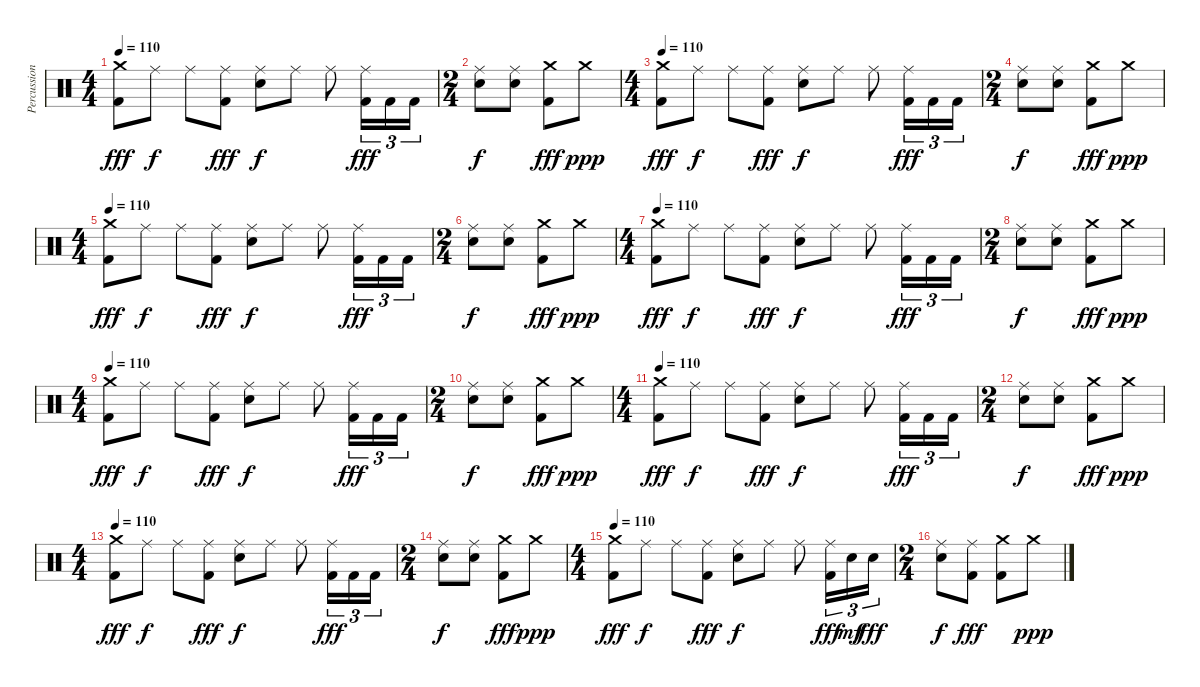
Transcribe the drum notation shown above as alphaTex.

\track ("Percussion" "Percussion") {instrument percussion}
\staff {score}
\articulation defaults
\ts (4 4)
\tempo 110
\clef neutral
\ks c
("Crash medium (hit)" "Kick (hit) 2").8{dy fff} "Ride (middle)".8{dy f} "Ride (middle)".8 ("Ride (middle)" "Kick (hit) 2").8{dy fff} ("Ride (middle)" "Electric Snare (hit)").8{dy f} "Ride (middle)".8 "Ride (middle)".8 ("Ride (middle)" "Kick (hit) 2").16{tu (3 2) dy fff} "Kick (hit) 2".16{tu (3 2)} "Kick (hit) 2".16{tu (3 2)} |
\ts (2 4)
("Ride (middle)" "Electric Snare (hit)").8{dy f} ("Ride (middle)" "Electric Snare (hit)").8 ("Crash medium (hit)" "Kick (hit) 2").8{dy fff} "Crash medium (hit)".8{dy ppp} |
\ts (4 4)
\tempo 110
("Crash medium (hit)" "Kick (hit) 2").8{dy fff} "Ride (middle)".8{dy f} "Ride (middle)".8 ("Ride (middle)" "Kick (hit) 2").8{dy fff} ("Ride (middle)" "Electric Snare (hit)").8{dy f} "Ride (middle)".8 "Ride (middle)".8 ("Ride (middle)" "Kick (hit) 2").16{tu (3 2) dy fff} "Kick (hit) 2".16{tu (3 2)} "Kick (hit) 2".16{tu (3 2)} |
\ts (2 4)
("Ride (middle)" "Electric Snare (hit)").8{dy f} ("Ride (middle)" "Electric Snare (hit)").8 ("Crash medium (hit)" "Kick (hit) 2").8{dy fff} "Crash medium (hit)".8{dy ppp} |
\ts (4 4)
\tempo 110
("Crash medium (hit)" "Kick (hit) 2").8{dy fff} "Ride (middle)".8{dy f} "Ride (middle)".8 ("Ride (middle)" "Kick (hit) 2").8{dy fff} ("Ride (middle)" "Electric Snare (hit)").8{dy f} "Ride (middle)".8 "Ride (middle)".8 ("Ride (middle)" "Kick (hit) 2").16{tu (3 2) dy fff} "Kick (hit) 2".16{tu (3 2)} "Kick (hit) 2".16{tu (3 2)} |
\ts (2 4)
("Ride (middle)" "Electric Snare (hit)").8{dy f} ("Ride (middle)" "Electric Snare (hit)").8 ("Crash medium (hit)" "Kick (hit) 2").8{dy fff} "Crash medium (hit)".8{dy ppp} |
\ts (4 4)
\tempo 110
("Crash medium (hit)" "Kick (hit) 2").8{dy fff} "Ride (middle)".8{dy f} "Ride (middle)".8 ("Ride (middle)" "Kick (hit) 2").8{dy fff} ("Ride (middle)" "Electric Snare (hit)").8{dy f} "Ride (middle)".8 "Ride (middle)".8 ("Ride (middle)" "Kick (hit) 2").16{tu (3 2) dy fff} "Kick (hit) 2".16{tu (3 2)} "Kick (hit) 2".16{tu (3 2)} |
\ts (2 4)
("Ride (middle)" "Electric Snare (hit)").8{dy f} ("Ride (middle)" "Electric Snare (hit)").8 ("Crash medium (hit)" "Kick (hit) 2").8{dy fff} "Crash medium (hit)".8{dy ppp} |
\ts (4 4)
\tempo 110
("Crash medium (hit)" "Kick (hit) 2").8{dy fff} "Ride (middle)".8{dy f} "Ride (middle)".8 ("Ride (middle)" "Kick (hit) 2").8{dy fff} ("Ride (middle)" "Electric Snare (hit)").8{dy f} "Ride (middle)".8 "Ride (middle)".8 ("Ride (middle)" "Kick (hit) 2").16{tu (3 2) dy fff} "Kick (hit) 2".16{tu (3 2)} "Kick (hit) 2".16{tu (3 2)} |
\ts (2 4)
("Ride (middle)" "Electric Snare (hit)").8{dy f} ("Ride (middle)" "Electric Snare (hit)").8 ("Crash medium (hit)" "Kick (hit) 2").8{dy fff} "Crash medium (hit)".8{dy ppp} |
\ts (4 4)
\tempo 110
("Crash medium (hit)" "Kick (hit) 2").8{dy fff} "Ride (middle)".8{dy f} "Ride (middle)".8 ("Ride (middle)" "Kick (hit) 2").8{dy fff} ("Ride (middle)" "Electric Snare (hit)").8{dy f} "Ride (middle)".8 "Ride (middle)".8 ("Ride (middle)" "Kick (hit) 2").16{tu (3 2) dy fff} "Kick (hit) 2".16{tu (3 2)} "Kick (hit) 2".16{tu (3 2)} |
\ts (2 4)
("Ride (middle)" "Electric Snare (hit)").8{dy f} ("Ride (middle)" "Electric Snare (hit)").8 ("Crash medium (hit)" "Kick (hit) 2").8{dy fff} "Crash medium (hit)".8{dy ppp} |
\ts (4 4)
\tempo 105
\tempo 110
("Crash medium (hit)" "Kick (hit) 2").8{dy fff} "Ride (middle)".8{dy f} "Ride (middle)".8 ("Ride (middle)" "Kick (hit) 2").8{dy fff} ("Ride (middle)" "Electric Snare (hit)").8{dy f} "Ride (middle)".8 "Ride (middle)".8 ("Ride (middle)" "Kick (hit) 2").16{tu (3 2) dy fff} "Kick (hit) 2".16{tu (3 2)} "Kick (hit) 2".16{tu (3 2)} |
\ts (2 4)
("Ride (middle)" "Electric Snare (hit)").8{dy f} ("Ride (middle)" "Electric Snare (hit)").8 ("Crash medium (hit)" "Kick (hit) 2").8{dy fff} "Crash medium (hit)".8{dy ppp} |
\ts (4 4)
\tempo 110
("Crash medium (hit)" "Kick (hit) 2").8{dy fff} "Ride (middle)".8{dy f} "Ride (middle)".8 ("Ride (middle)" "Kick (hit) 2").8{dy fff} ("Ride (middle)" "Electric Snare (hit)").8{dy f} "Ride (middle)".8 "Ride (middle)".8 ("Ride (middle)" "Kick (hit) 2").16{tu (3 2) dy fff} "Electric Snare (hit)".16{tu (3 2) dy mf} "Electric Snare (hit)".16{tu (3 2) dy fff} |
\ts (2 4)
("Ride (middle)" "Electric Snare (hit)").8{dy f} ("Ride (middle)" "Kick (hit) 2").8{dy fff} ("Crash medium (hit)" "Kick (hit) 2").8 "Crash medium (hit)".8{dy ppp}
